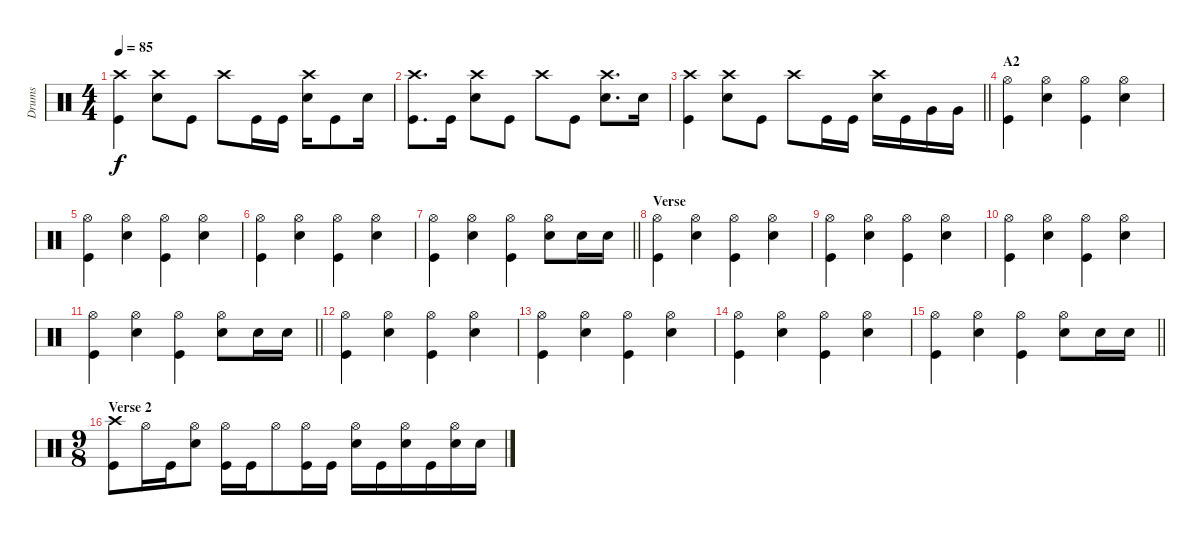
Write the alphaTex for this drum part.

\track ("Drums" "Drums") {instrument percussion}
\staff {score}
\articulation defaults
\ts (4 4)
\tempo 85
\clef neutral
\ks c
("Crash high (hit)" "Kick (hit)").4{dy f} ("Snare (hit) 2" "Crash high (hit)").8 "Kick (hit)".8 "Crash high (hit)".8 "Kick (hit)".16 "Kick (hit)".16 ("Crash high (hit)" "Snare (hit) 2").16 "Kick (hit)".8 "Snare (hit) 2".16 |
("Crash high (hit)" "Kick (hit)").8{d} "Kick (hit)".16 ("Snare (hit) 2" "Crash high (hit)").8 "Kick (hit)".8 "Crash high (hit)".8 "Kick (hit)".8 ("Snare (hit) 2" "Crash high (hit)").8{d} "Snare (hit) 2".16 |
\barLineRight lightlight
("Crash high (hit)" "Kick (hit)").4 ("Snare (hit) 2" "Crash high (hit)").8 "Kick (hit)".8 "Crash high (hit)".8 "Kick (hit)".16 "Kick (hit)".16 ("Crash high (hit)" "Snare (hit) 2").16 "Kick (hit)".16 "Very Low Tom (hit)".16 "Very Low Tom (hit)".16 |
\section ("" "A2")
("Hi-Hat (open)" "Kick (hit)").4 ("Snare (hit) 2" "Hi-Hat (open)").4 ("Hi-Hat (open)" "Kick (hit)").4 ("Snare (hit) 2" "Hi-Hat (open)").4 |
("Hi-Hat (open)" "Kick (hit)").4 ("Snare (hit) 2" "Hi-Hat (open)").4 ("Hi-Hat (open)" "Kick (hit)").4 ("Snare (hit) 2" "Hi-Hat (open)").4 |
("Hi-Hat (open)" "Kick (hit)").4 ("Snare (hit) 2" "Hi-Hat (open)").4 ("Hi-Hat (open)" "Kick (hit)").4 ("Snare (hit) 2" "Hi-Hat (open)").4 |
\barLineRight lightlight
("Hi-Hat (open)" "Kick (hit)").4 ("Snare (hit) 2" "Hi-Hat (open)").4 ("Hi-Hat (open)" "Kick (hit)").4 ("Snare (hit) 2" "Hi-Hat (open)").8 "Snare (hit) 2".16 "Snare (hit) 2".16 |
\section ("" "Verse")
("Hi-Hat (open)" "Kick (hit)").4 ("Snare (hit) 2" "Hi-Hat (open)").4 ("Hi-Hat (open)" "Kick (hit)").4 ("Snare (hit) 2" "Hi-Hat (open)").4 |
("Hi-Hat (open)" "Kick (hit)").4 ("Snare (hit) 2" "Hi-Hat (open)").4 ("Hi-Hat (open)" "Kick (hit)").4 ("Snare (hit) 2" "Hi-Hat (open)").4 |
("Hi-Hat (open)" "Kick (hit)").4 ("Snare (hit) 2" "Hi-Hat (open)").4 ("Hi-Hat (open)" "Kick (hit)").4 ("Snare (hit) 2" "Hi-Hat (open)").4 |
\barLineRight lightlight
("Hi-Hat (open)" "Kick (hit)").4 ("Snare (hit) 2" "Hi-Hat (open)").4 ("Hi-Hat (open)" "Kick (hit)").4 ("Snare (hit) 2" "Hi-Hat (open)").8 "Snare (hit) 2".16 "Snare (hit) 2".16 |
("Hi-Hat (open)" "Kick (hit)").4 ("Snare (hit) 2" "Hi-Hat (open)").4 ("Hi-Hat (open)" "Kick (hit)").4 ("Snare (hit) 2" "Hi-Hat (open)").4 |
("Hi-Hat (open)" "Kick (hit)").4 ("Snare (hit) 2" "Hi-Hat (open)").4 ("Hi-Hat (open)" "Kick (hit)").4 ("Snare (hit) 2" "Hi-Hat (open)").4 |
("Hi-Hat (open)" "Kick (hit)").4 ("Snare (hit) 2" "Hi-Hat (open)").4 ("Hi-Hat (open)" "Kick (hit)").4 ("Snare (hit) 2" "Hi-Hat (open)").4 |
\barLineRight lightlight
("Hi-Hat (open)" "Kick (hit)").4 ("Snare (hit) 2" "Hi-Hat (open)").4 ("Hi-Hat (open)" "Kick (hit)").4 ("Snare (hit) 2" "Hi-Hat (open)").8 "Snare (hit) 2".16 "Snare (hit) 2".16 |
\ts (9 8)
\section ("" "Verse 2")
("Crash high (hit)" "Kick (hit)").8 "Hi-Hat (open)".16 "Kick (hit)".16 ("Hi-Hat (open)" "Snare (hit) 2").8 ("Hi-Hat (open)" "Kick (hit)").16 "Kick (hit)".16 "Hi-Hat (open)".8 ("Hi-Hat (open)" "Kick (hit)").16 "Kick (hit)".16 ("Snare (hit) 2" "Hi-Hat (open)").16 "Kick (hit)".16 ("Hi-Hat (open)" "Snare (hit) 2").16 "Kick (hit)".16 ("Hi-Hat (open)" "Snare (hit) 2").16 "Snare (hit) 2".16
